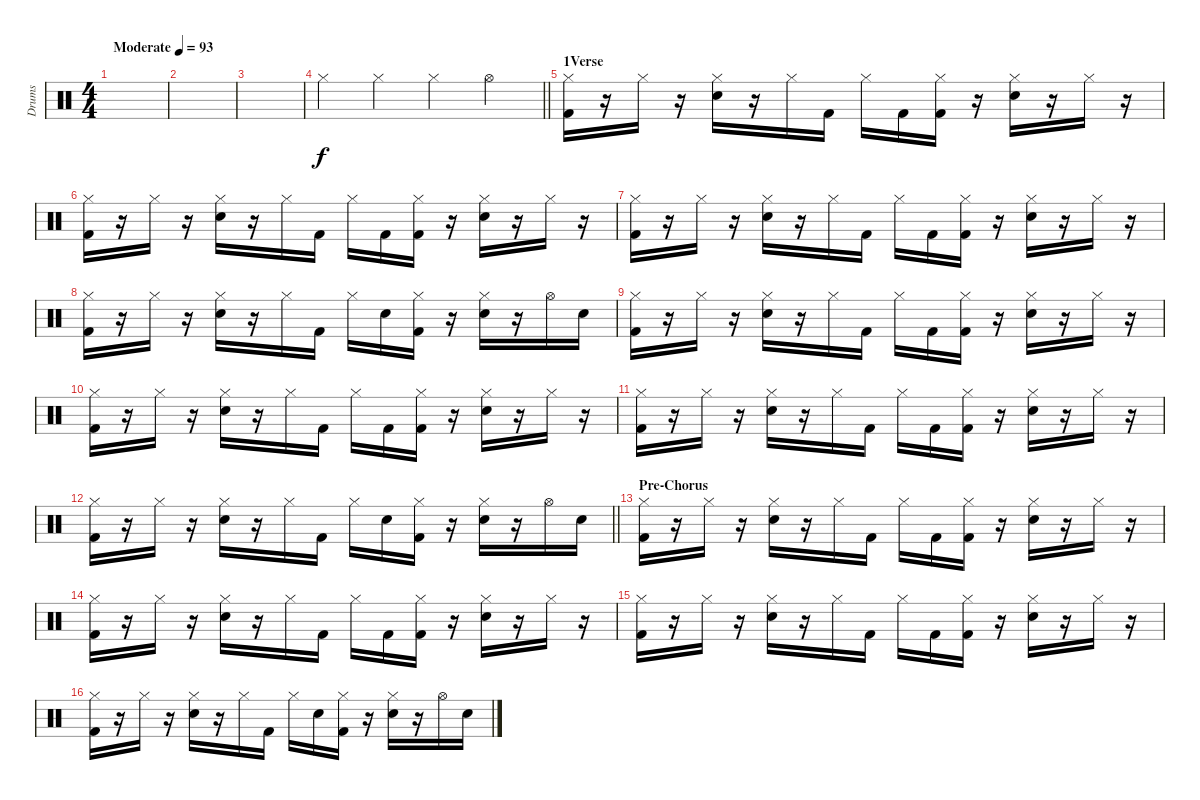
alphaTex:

\track ("Drums" "Drums") {instrument percussion}
\staff {score}
\articulation defaults
\ts (4 4)
\tempo (93 "Moderate")
\clef neutral
\ks c
|
|
|
\barLineRight lightlight "Hi-Hat (closed)".4 "Hi-Hat (closed)".4 "Hi-Hat (closed)".4 "Hi-Hat (open)".4
|
\section ("" "1Verse")
("Hi-Hat (closed)" "Kick (hit) 2").16 r.16 "Hi-Hat (closed)".16 r.16 ("Hi-Hat (closed)" "Electric Snare (hit)").16 r.16 "Hi-Hat (closed)".16 "Kick (hit) 2".16 "Hi-Hat (closed)".16 "Kick (hit) 2".16 ("Hi-Hat (closed)" "Kick (hit) 2").16 r.16 ("Hi-Hat (closed)" "Electric Snare (hit)").16 r.16 "Hi-Hat (closed)".16 r.16 |
("Hi-Hat (closed)" "Kick (hit) 2").16 r.16 "Hi-Hat (closed)".16 r.16 ("Hi-Hat (closed)" "Electric Snare (hit)").16 r.16 "Hi-Hat (closed)".16 "Kick (hit) 2".16 "Hi-Hat (closed)".16 "Kick (hit) 2".16 ("Hi-Hat (closed)" "Kick (hit) 2").16 r.16 ("Hi-Hat (closed)" "Electric Snare (hit)").16 r.16 "Hi-Hat (closed)".16 r.16 |
("Hi-Hat (closed)" "Kick (hit) 2").16 r.16 "Hi-Hat (closed)".16 r.16 ("Hi-Hat (closed)" "Electric Snare (hit)").16 r.16 "Hi-Hat (closed)".16 "Kick (hit) 2".16 "Hi-Hat (closed)".16 "Kick (hit) 2".16 ("Hi-Hat (closed)" "Kick (hit) 2").16 r.16 ("Hi-Hat (closed)" "Electric Snare (hit)").16 r.16 "Hi-Hat (closed)".16 r.16 |
("Hi-Hat (closed)" "Kick (hit) 2").16 r.16 "Hi-Hat (closed)".16 r.16 ("Hi-Hat (closed)" "Electric Snare (hit)").16 r.16 "Hi-Hat (closed)".16 "Kick (hit) 2".16 "Hi-Hat (closed)".16 "Electric Snare (hit)".16 ("Hi-Hat (closed)" "Kick (hit) 2").16 r.16 ("Hi-Hat (closed)" "Electric Snare (hit)").16 r.16 "Hi-Hat (open)".16 "Electric Snare (hit)".16 |
("Hi-Hat (closed)" "Kick (hit) 2").16 r.16 "Hi-Hat (closed)".16 r.16 ("Hi-Hat (closed)" "Electric Snare (hit)").16 r.16 "Hi-Hat (closed)".16 "Kick (hit) 2".16 "Hi-Hat (closed)".16 "Kick (hit) 2".16 ("Hi-Hat (closed)" "Kick (hit) 2").16 r.16 ("Hi-Hat (closed)" "Electric Snare (hit)").16 r.16 "Hi-Hat (closed)".16 r.16 |
("Hi-Hat (closed)" "Kick (hit) 2").16 r.16 "Hi-Hat (closed)".16 r.16 ("Hi-Hat (closed)" "Electric Snare (hit)").16 r.16 "Hi-Hat (closed)".16 "Kick (hit) 2".16 "Hi-Hat (closed)".16 "Kick (hit) 2".16 ("Hi-Hat (closed)" "Kick (hit) 2").16 r.16 ("Hi-Hat (closed)" "Electric Snare (hit)").16 r.16 "Hi-Hat (closed)".16 r.16 |
("Hi-Hat (closed)" "Kick (hit) 2").16 r.16 "Hi-Hat (closed)".16 r.16 ("Hi-Hat (closed)" "Electric Snare (hit)").16 r.16 "Hi-Hat (closed)".16 "Kick (hit) 2".16 "Hi-Hat (closed)".16 "Kick (hit) 2".16 ("Hi-Hat (closed)" "Kick (hit) 2").16 r.16 ("Hi-Hat (closed)" "Electric Snare (hit)").16 r.16 "Hi-Hat (closed)".16 r.16 |
\barLineRight lightlight
("Hi-Hat (closed)" "Kick (hit) 2").16 r.16 "Hi-Hat (closed)".16 r.16 ("Hi-Hat (closed)" "Electric Snare (hit)").16 r.16 "Hi-Hat (closed)".16 "Kick (hit) 2".16 "Hi-Hat (closed)".16 "Electric Snare (hit)".16 ("Hi-Hat (closed)" "Kick (hit) 2").16 r.16 ("Hi-Hat (closed)" "Electric Snare (hit)").16 r.16 "Hi-Hat (open)".16 "Electric Snare (hit)".16 |
\section ("" "Pre-Chorus")
("Hi-Hat (closed)" "Kick (hit) 2").16 r.16 "Hi-Hat (closed)".16 r.16 ("Hi-Hat (closed)" "Electric Snare (hit)").16 r.16 "Hi-Hat (closed)".16 "Kick (hit) 2".16 "Hi-Hat (closed)".16 "Kick (hit) 2".16 ("Hi-Hat (closed)" "Kick (hit) 2").16 r.16 ("Hi-Hat (closed)" "Electric Snare (hit)").16 r.16 "Hi-Hat (closed)".16 r.16 |
("Hi-Hat (closed)" "Kick (hit) 2").16 r.16 "Hi-Hat (closed)".16 r.16 ("Hi-Hat (closed)" "Electric Snare (hit)").16 r.16 "Hi-Hat (closed)".16 "Kick (hit) 2".16 "Hi-Hat (closed)".16 "Kick (hit) 2".16 ("Hi-Hat (closed)" "Kick (hit) 2").16 r.16 ("Hi-Hat (closed)" "Electric Snare (hit)").16 r.16 "Hi-Hat (closed)".16 r.16 |
("Hi-Hat (closed)" "Kick (hit) 2").16 r.16 "Hi-Hat (closed)".16 r.16 ("Hi-Hat (closed)" "Electric Snare (hit)").16 r.16 "Hi-Hat (closed)".16 "Kick (hit) 2".16 "Hi-Hat (closed)".16 "Kick (hit) 2".16 ("Hi-Hat (closed)" "Kick (hit) 2").16 r.16 ("Hi-Hat (closed)" "Electric Snare (hit)").16 r.16 "Hi-Hat (closed)".16 r.16 |
("Hi-Hat (closed)" "Kick (hit) 2").16 r.16 "Hi-Hat (closed)".16 r.16 ("Hi-Hat (closed)" "Electric Snare (hit)").16 r.16 "Hi-Hat (closed)".16 "Kick (hit) 2".16 "Hi-Hat (closed)".16 "Electric Snare (hit)".16 ("Hi-Hat (closed)" "Kick (hit) 2").16 r.16 ("Hi-Hat (closed)" "Electric Snare (hit)").16 r.16 "Hi-Hat (open)".16 "Electric Snare (hit)".16
